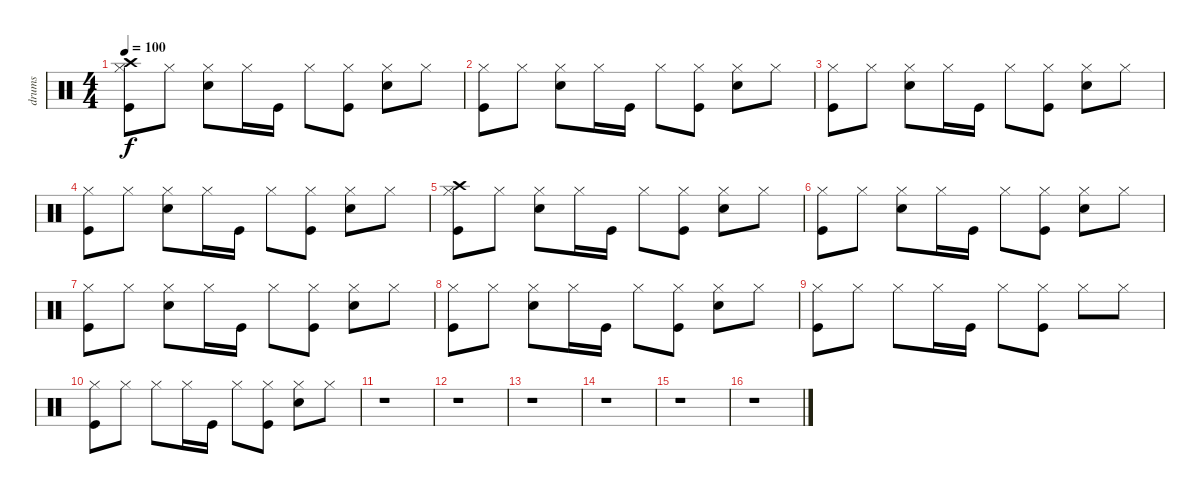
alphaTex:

\track ("drums" "drums") {instrument percussion}
\staff {score}
\articulation defaults
\ts (4 4)
\tempo 100
\clef neutral
\ks c
("Kick (hit)" "Hi-Hat (closed)" "Crash high (hit)").8{dy f} "Hi-Hat (closed)".8 ("Snare (hit) 2" "Hi-Hat (closed)").8 "Hi-Hat (closed)".16 "Kick (hit)".16 "Hi-Hat (closed)".8 ("Kick (hit)" "Hi-Hat (closed)").8 ("Snare (hit) 2" "Hi-Hat (closed)").8 "Hi-Hat (closed)".8 |
("Kick (hit)" "Hi-Hat (closed)").8 "Hi-Hat (closed)".8 ("Snare (hit) 2" "Hi-Hat (closed)").8 "Hi-Hat (closed)".16 "Kick (hit)".16 "Hi-Hat (closed)".8 ("Kick (hit)" "Hi-Hat (closed)").8 ("Snare (hit) 2" "Hi-Hat (closed)").8 "Hi-Hat (closed)".8 |
("Kick (hit)" "Hi-Hat (closed)").8 "Hi-Hat (closed)".8 ("Snare (hit) 2" "Hi-Hat (closed)").8 "Hi-Hat (closed)".16 "Kick (hit)".16 "Hi-Hat (closed)".8 ("Kick (hit)" "Hi-Hat (closed)").8 ("Snare (hit) 2" "Hi-Hat (closed)").8 "Hi-Hat (closed)".8 |
("Kick (hit)" "Hi-Hat (closed)").8 "Hi-Hat (closed)".8 ("Snare (hit) 2" "Hi-Hat (closed)").8 "Hi-Hat (closed)".16 "Kick (hit)".16 "Hi-Hat (closed)".8 ("Kick (hit)" "Hi-Hat (closed)").8 ("Snare (hit) 2" "Hi-Hat (closed)").8 "Hi-Hat (closed)".8 |
("Kick (hit)" "Hi-Hat (closed)" "Crash high (hit)").8 "Hi-Hat (closed)".8 ("Snare (hit) 2" "Hi-Hat (closed)").8 "Hi-Hat (closed)".16 "Kick (hit)".16 "Hi-Hat (closed)".8 ("Kick (hit)" "Hi-Hat (closed)").8 ("Snare (hit) 2" "Hi-Hat (closed)").8 "Hi-Hat (closed)".8 |
("Kick (hit)" "Hi-Hat (closed)").8 "Hi-Hat (closed)".8 ("Snare (hit) 2" "Hi-Hat (closed)").8 "Hi-Hat (closed)".16 "Kick (hit)".16 "Hi-Hat (closed)".8 ("Kick (hit)" "Hi-Hat (closed)").8 ("Snare (hit) 2" "Hi-Hat (closed)").8 "Hi-Hat (closed)".8 |
("Kick (hit)" "Hi-Hat (closed)").8 "Hi-Hat (closed)".8 ("Snare (hit) 2" "Hi-Hat (closed)").8 "Hi-Hat (closed)".16 "Kick (hit)".16 "Hi-Hat (closed)".8 ("Kick (hit)" "Hi-Hat (closed)").8 ("Snare (hit) 2" "Hi-Hat (closed)").8 "Hi-Hat (closed)".8 |
("Kick (hit)" "Hi-Hat (closed)").8 "Hi-Hat (closed)".8 ("Snare (hit) 2" "Hi-Hat (closed)").8 "Hi-Hat (closed)".16 "Kick (hit)".16 "Hi-Hat (closed)".8 ("Kick (hit)" "Hi-Hat (closed)").8 ("Snare (hit) 2" "Hi-Hat (closed)").8 "Hi-Hat (closed)".8 |
("Kick (hit)" "Hi-Hat (closed)").8 "Hi-Hat (closed)".8 "Hi-Hat (closed)".8 "Hi-Hat (closed)".16 "Kick (hit)".16 "Hi-Hat (closed)".8 ("Kick (hit)" "Hi-Hat (closed)").8 "Hi-Hat (closed)".8 "Hi-Hat (closed)".8 |
("Kick (hit)" "Hi-Hat (closed)").8 "Hi-Hat (closed)".8 "Hi-Hat (closed)".8 "Hi-Hat (closed)".16 "Kick (hit)".16 "Hi-Hat (closed)".8 ("Kick (hit)" "Hi-Hat (closed)").8 ("Snare (hit) 2" "Hi-Hat (closed)").8 "Hi-Hat (closed)".8 |
r.1 |
r.1 |
r.1 |
r.1 |
r.1 |
r.1
